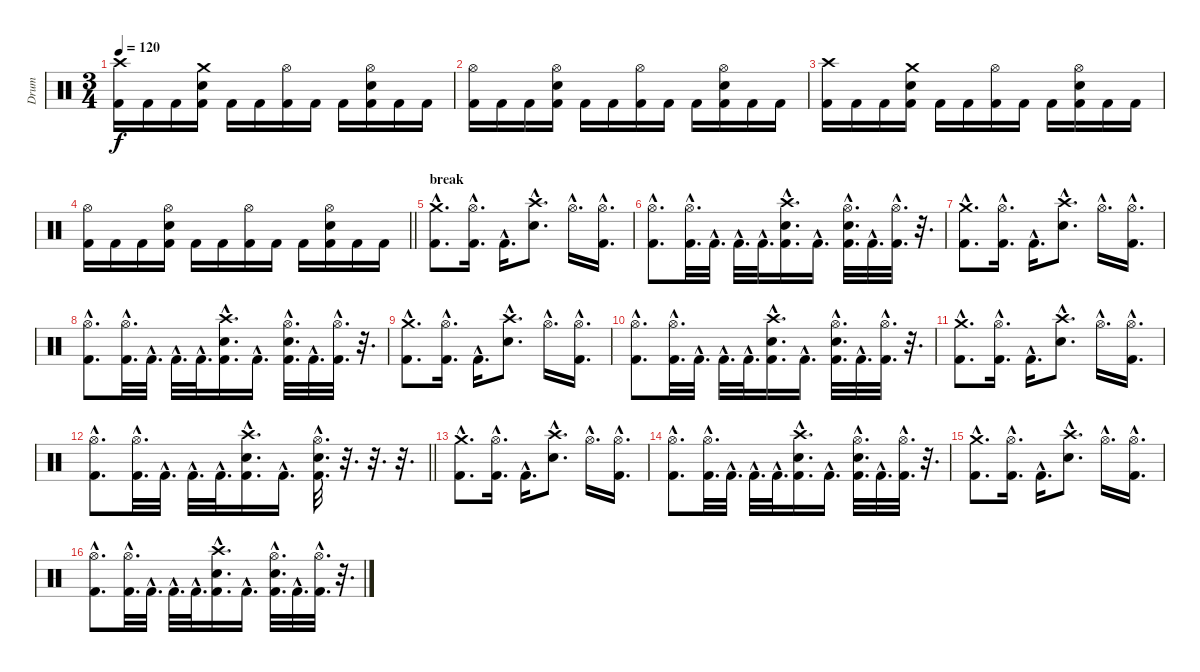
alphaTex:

\track ("Drum" "Drum") {instrument percussion}
\staff {score}
\articulation defaults
\ts (3 4)
\tempo 120
\clef neutral
\ks c
("Crash high (hit)" "Kick (hit) 2").16{dy f} "Kick (hit) 2".16 "Kick (hit) 2".16 ("Crash medium (hit)" "Snare (hit) 2" "Kick (hit) 2").16 "Kick (hit) 2".16 "Kick (hit) 2".16 ("Hi-Hat (open)" "Kick (hit) 2").16 "Kick (hit) 2".16 "Kick (hit) 2".16 ("Hi-Hat (open)" "Snare (hit) 2" "Kick (hit) 2").16 "Kick (hit) 2".16 "Kick (hit) 2".16 |
("Hi-Hat (open)" "Kick (hit) 2").16 "Kick (hit) 2".16 "Kick (hit) 2".16 ("Hi-Hat (open)" "Snare (hit) 2" "Kick (hit) 2").16 "Kick (hit) 2".16 "Kick (hit) 2".16 ("Hi-Hat (open)" "Kick (hit) 2").16 "Kick (hit) 2".16 "Kick (hit) 2".16 ("Hi-Hat (open)" "Snare (hit) 2" "Kick (hit) 2").16 "Kick (hit) 2".16 "Kick (hit) 2".16 |
("Crash high (hit)" "Kick (hit) 2").16 "Kick (hit) 2".16 "Kick (hit) 2".16 ("Crash medium (hit)" "Snare (hit) 2" "Kick (hit) 2").16 "Kick (hit) 2".16 "Kick (hit) 2".16 ("Hi-Hat (open)" "Kick (hit) 2").16 "Kick (hit) 2".16 "Kick (hit) 2".16 ("Hi-Hat (open)" "Snare (hit) 2" "Kick (hit) 2").16 "Kick (hit) 2".16 "Kick (hit) 2".16 |
\barLineRight lightlight
("Hi-Hat (open)" "Kick (hit) 2").16 "Kick (hit) 2".16 "Kick (hit) 2".16 ("Hi-Hat (open)" "Snare (hit) 2" "Kick (hit) 2").16 "Kick (hit) 2".16 "Kick (hit) 2".16 ("Hi-Hat (open)" "Kick (hit) 2").16 "Kick (hit) 2".16 "Kick (hit) 2".16 ("Hi-Hat (open)" "Snare (hit) 2" "Kick (hit) 2").16 "Kick (hit) 2".16 "Kick (hit) 2".16 |
\section ("" "break")
("Crash medium (hit)"{hac} "Kick (hit) 2"{hac}).8{d} ("Hi-Hat (open)"{hac} "Kick (hit) 2"{hac}).16{d} "Kick (hit) 2"{hac}.16{d} ("Crash high (hit)"{hac} "Snare (hit) 2"{hac}).8{d} "Hi-Hat (open)"{hac}.16{d} ("Hi-Hat (open)"{hac} "Kick (hit) 2"{hac}).16{d} |
("Hi-Hat (open)"{hac} "Kick (hit) 2"{hac}).8{d} ("Hi-Hat (open)"{hac} "Kick (hit) 2"{hac}).32{d} "Kick (hit) 2"{hac}.32{d} "Kick (hit) 2"{hac}.32{d} "Kick (hit) 2"{hac}.32{d} ("Crash high (hit)"{hac} "Snare (hit) 2"{hac} "Kick (hit) 2"{hac}).16{d} "Kick (hit) 2"{hac}.16{d} ("Hi-Hat (open)"{hac} "Snare (hit) 2"{hac} "Kick (hit) 2"{hac}).32{d} "Kick (hit) 2"{hac}.32{d} ("Hi-Hat (open)"{hac} "Kick (hit) 2"{hac}).32{d} r.32{d} |
("Crash medium (hit)"{hac} "Kick (hit) 2"{hac}).8{d} ("Hi-Hat (open)"{hac} "Kick (hit) 2"{hac}).16{d} "Kick (hit) 2"{hac}.16{d} ("Crash high (hit)"{hac} "Snare (hit) 2"{hac}).8{d} "Hi-Hat (open)"{hac}.16{d} ("Hi-Hat (open)"{hac} "Kick (hit) 2"{hac}).16{d} |
("Hi-Hat (open)"{hac} "Kick (hit) 2"{hac}).8{d} ("Hi-Hat (open)"{hac} "Kick (hit) 2"{hac}).32{d} "Kick (hit) 2"{hac}.32{d} "Kick (hit) 2"{hac}.32{d} "Kick (hit) 2"{hac}.32{d} ("Crash high (hit)"{hac} "Snare (hit) 2"{hac} "Kick (hit) 2"{hac}).16{d} "Kick (hit) 2"{hac}.16{d} ("Hi-Hat (open)"{hac} "Snare (hit) 2"{hac} "Kick (hit) 2"{hac}).32{d} "Kick (hit) 2"{hac}.32{d} ("Hi-Hat (open)"{hac} "Kick (hit) 2"{hac}).32{d} r.32{d} |
("Crash medium (hit)"{hac} "Kick (hit) 2"{hac}).8{d} ("Hi-Hat (open)"{hac} "Kick (hit) 2"{hac}).16{d} "Kick (hit) 2"{hac}.16{d} ("Crash high (hit)"{hac} "Snare (hit) 2"{hac}).8{d} "Hi-Hat (open)"{hac}.16{d} ("Hi-Hat (open)"{hac} "Kick (hit) 2"{hac}).16{d} |
("Hi-Hat (open)"{hac} "Kick (hit) 2"{hac}).8{d} ("Hi-Hat (open)"{hac} "Kick (hit) 2"{hac}).32{d} "Kick (hit) 2"{hac}.32{d} "Kick (hit) 2"{hac}.32{d} "Kick (hit) 2"{hac}.32{d} ("Crash high (hit)"{hac} "Snare (hit) 2"{hac} "Kick (hit) 2"{hac}).16{d} "Kick (hit) 2"{hac}.16{d} ("Hi-Hat (open)"{hac} "Snare (hit) 2"{hac} "Kick (hit) 2"{hac}).32{d} "Kick (hit) 2"{hac}.32{d} ("Hi-Hat (open)"{hac} "Kick (hit) 2"{hac}).32{d} r.32{d} |
("Crash medium (hit)"{hac} "Kick (hit) 2"{hac}).8{d} ("Hi-Hat (open)"{hac} "Kick (hit) 2"{hac}).16{d} "Kick (hit) 2"{hac}.16{d} ("Crash high (hit)"{hac} "Snare (hit) 2"{hac}).8{d} "Hi-Hat (open)"{hac}.16{d} ("Hi-Hat (open)"{hac} "Kick (hit) 2"{hac}).16{d} |
\barLineRight lightlight
("Hi-Hat (open)"{hac} "Kick (hit) 2"{hac}).8{d} ("Hi-Hat (open)"{hac} "Kick (hit) 2"{hac}).32{d} "Kick (hit) 2"{hac}.32{d} "Kick (hit) 2"{hac}.32{d} "Kick (hit) 2"{hac}.32{d} ("Crash high (hit)"{hac} "Snare (hit) 2"{hac} "Kick (hit) 2"{hac}).16{d} "Kick (hit) 2"{hac}.16{d} ("Hi-Hat (open)"{hac} "Snare (hit) 2"{hac} "Kick (hit) 2"{hac}).32{d} r.32{d} r.32{d} r.32{d} |
("Crash medium (hit)"{hac} "Kick (hit) 2"{hac}).8{d} ("Hi-Hat (open)"{hac} "Kick (hit) 2"{hac}).16{d} "Kick (hit) 2"{hac}.16{d} ("Crash high (hit)"{hac} "Snare (hit) 2"{hac}).8{d} "Hi-Hat (open)"{hac}.16{d} ("Hi-Hat (open)"{hac} "Kick (hit) 2"{hac}).16{d} |
("Hi-Hat (open)"{hac} "Kick (hit) 2"{hac}).8{d} ("Hi-Hat (open)"{hac} "Kick (hit) 2"{hac}).32{d} "Kick (hit) 2"{hac}.32{d} "Kick (hit) 2"{hac}.32{d} "Kick (hit) 2"{hac}.32{d} ("Crash high (hit)"{hac} "Snare (hit) 2"{hac} "Kick (hit) 2"{hac}).16{d} "Kick (hit) 2"{hac}.16{d} ("Hi-Hat (open)"{hac} "Snare (hit) 2"{hac} "Kick (hit) 2"{hac}).32{d} "Kick (hit) 2"{hac}.32{d} ("Hi-Hat (open)"{hac} "Kick (hit) 2"{hac}).32{d} r.32{d} |
("Crash medium (hit)"{hac} "Kick (hit) 2"{hac}).8{d} ("Hi-Hat (open)"{hac} "Kick (hit) 2"{hac}).16{d} "Kick (hit) 2"{hac}.16{d} ("Crash high (hit)"{hac} "Snare (hit) 2"{hac}).8{d} "Hi-Hat (open)"{hac}.16{d} ("Hi-Hat (open)"{hac} "Kick (hit) 2"{hac}).16{d} |
("Hi-Hat (open)"{hac} "Kick (hit) 2"{hac}).8{d} ("Hi-Hat (open)"{hac} "Kick (hit) 2"{hac}).32{d} "Kick (hit) 2"{hac}.32{d} "Kick (hit) 2"{hac}.32{d} "Kick (hit) 2"{hac}.32{d} ("Crash high (hit)"{hac} "Snare (hit) 2"{hac} "Kick (hit) 2"{hac}).16{d} "Kick (hit) 2"{hac}.16{d} ("Hi-Hat (open)"{hac} "Snare (hit) 2"{hac} "Kick (hit) 2"{hac}).32{d} "Kick (hit) 2"{hac}.32{d} ("Hi-Hat (open)"{hac} "Kick (hit) 2"{hac}).32{d} r.32{d}
